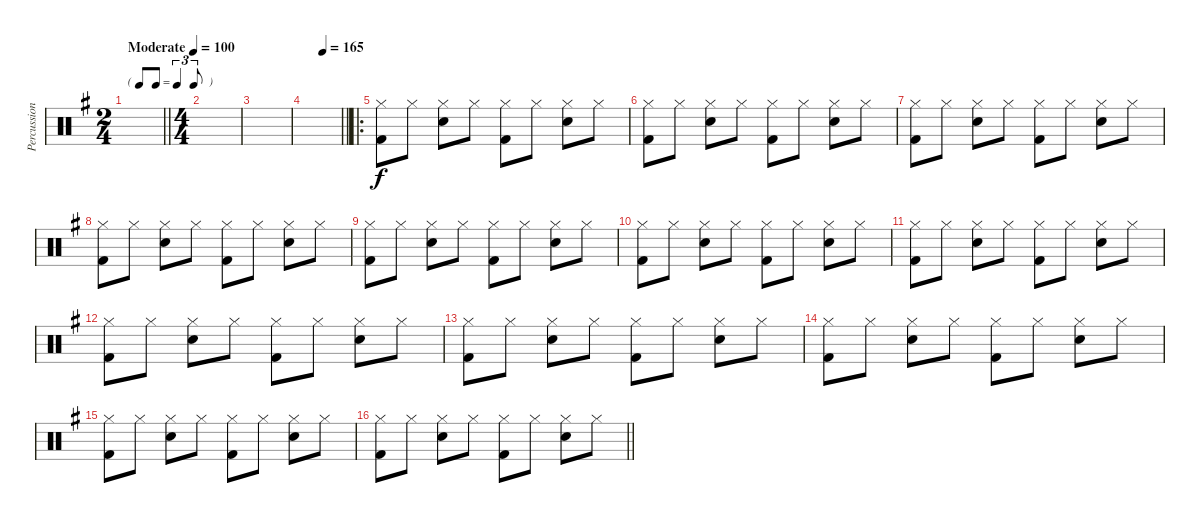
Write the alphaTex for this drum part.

\track ("Percussion" "Percussion") {instrument percussion}
\staff {score}
\articulation defaults
\ts (2 4)
\tf triplet8th
\tempo (100 "Moderate")
\tempo 80
\tempo (100 "Moderate")
\clef neutral
\barLineRight lightlight
\ks g
|
\ts (4 4)
|
|
\tempo (165 0.5)
\barLineRight lightlight
|
\ro
("Hi-Hat (closed)" "Kick (hit) 2").8 "Hi-Hat (closed)".8 ("Hi-Hat (closed)" "Snare (hit) 2").8 "Hi-Hat (closed)".8 ("Hi-Hat (closed)" "Kick (hit) 2").8 "Hi-Hat (closed)".8 ("Hi-Hat (closed)" "Snare (hit) 2").8 "Hi-Hat (closed)".8 |
("Hi-Hat (closed)" "Kick (hit) 2").8 "Hi-Hat (closed)".8 ("Hi-Hat (closed)" "Snare (hit) 2").8 "Hi-Hat (closed)".8 ("Hi-Hat (closed)" "Kick (hit) 2").8 "Hi-Hat (closed)".8 ("Hi-Hat (closed)" "Snare (hit) 2").8 "Hi-Hat (closed)".8 |
("Hi-Hat (closed)" "Kick (hit) 2").8 "Hi-Hat (closed)".8 ("Hi-Hat (closed)" "Snare (hit) 2").8 "Hi-Hat (closed)".8 ("Hi-Hat (closed)" "Kick (hit) 2").8 "Hi-Hat (closed)".8 ("Hi-Hat (closed)" "Snare (hit) 2").8 "Hi-Hat (closed)".8 |
("Hi-Hat (closed)" "Kick (hit) 2").8 "Hi-Hat (closed)".8 ("Hi-Hat (closed)" "Snare (hit) 2").8 "Hi-Hat (closed)".8 ("Hi-Hat (closed)" "Kick (hit) 2").8 "Hi-Hat (closed)".8 ("Hi-Hat (closed)" "Snare (hit) 2").8 "Hi-Hat (closed)".8 |
("Hi-Hat (closed)" "Kick (hit) 2").8 "Hi-Hat (closed)".8 ("Hi-Hat (closed)" "Snare (hit) 2").8 "Hi-Hat (closed)".8 ("Hi-Hat (closed)" "Kick (hit) 2").8 "Hi-Hat (closed)".8 ("Hi-Hat (closed)" "Snare (hit) 2").8 "Hi-Hat (closed)".8 |
("Hi-Hat (closed)" "Kick (hit) 2").8 "Hi-Hat (closed)".8 ("Hi-Hat (closed)" "Snare (hit) 2").8 "Hi-Hat (closed)".8 ("Hi-Hat (closed)" "Kick (hit) 2").8 "Hi-Hat (closed)".8 ("Hi-Hat (closed)" "Snare (hit) 2").8 "Hi-Hat (closed)".8 |
("Hi-Hat (closed)" "Kick (hit) 2").8 "Hi-Hat (closed)".8 ("Hi-Hat (closed)" "Snare (hit) 2").8 "Hi-Hat (closed)".8 ("Hi-Hat (closed)" "Kick (hit) 2").8 "Hi-Hat (closed)".8 ("Hi-Hat (closed)" "Snare (hit) 2").8 "Hi-Hat (closed)".8 |
("Hi-Hat (closed)" "Kick (hit) 2").8 "Hi-Hat (closed)".8 ("Hi-Hat (closed)" "Snare (hit) 2").8 "Hi-Hat (closed)".8 ("Hi-Hat (closed)" "Kick (hit) 2").8 "Hi-Hat (closed)".8 ("Hi-Hat (closed)" "Snare (hit) 2").8 "Hi-Hat (closed)".8 |
("Hi-Hat (closed)" "Kick (hit) 2").8 "Hi-Hat (closed)".8 ("Hi-Hat (closed)" "Snare (hit) 2").8 "Hi-Hat (closed)".8 ("Hi-Hat (closed)" "Kick (hit) 2").8 "Hi-Hat (closed)".8 ("Hi-Hat (closed)" "Snare (hit) 2").8 "Hi-Hat (closed)".8 |
("Hi-Hat (closed)" "Kick (hit) 2").8 "Hi-Hat (closed)".8 ("Hi-Hat (closed)" "Snare (hit) 2").8 "Hi-Hat (closed)".8 ("Hi-Hat (closed)" "Kick (hit) 2").8 "Hi-Hat (closed)".8 ("Hi-Hat (closed)" "Snare (hit) 2").8 "Hi-Hat (closed)".8 |
("Hi-Hat (closed)" "Kick (hit) 2").8 "Hi-Hat (closed)".8 ("Hi-Hat (closed)" "Snare (hit) 2").8 "Hi-Hat (closed)".8 ("Hi-Hat (closed)" "Kick (hit) 2").8 "Hi-Hat (closed)".8 ("Hi-Hat (closed)" "Snare (hit) 2").8 "Hi-Hat (closed)".8 |
\barLineRight lightlight
("Hi-Hat (closed)" "Kick (hit) 2").8 "Hi-Hat (closed)".8 ("Hi-Hat (closed)" "Snare (hit) 2").8 "Hi-Hat (closed)".8 ("Hi-Hat (closed)" "Kick (hit) 2").8 "Hi-Hat (closed)".8 ("Hi-Hat (closed)" "Snare (hit) 2").8 "Hi-Hat (closed)".8
